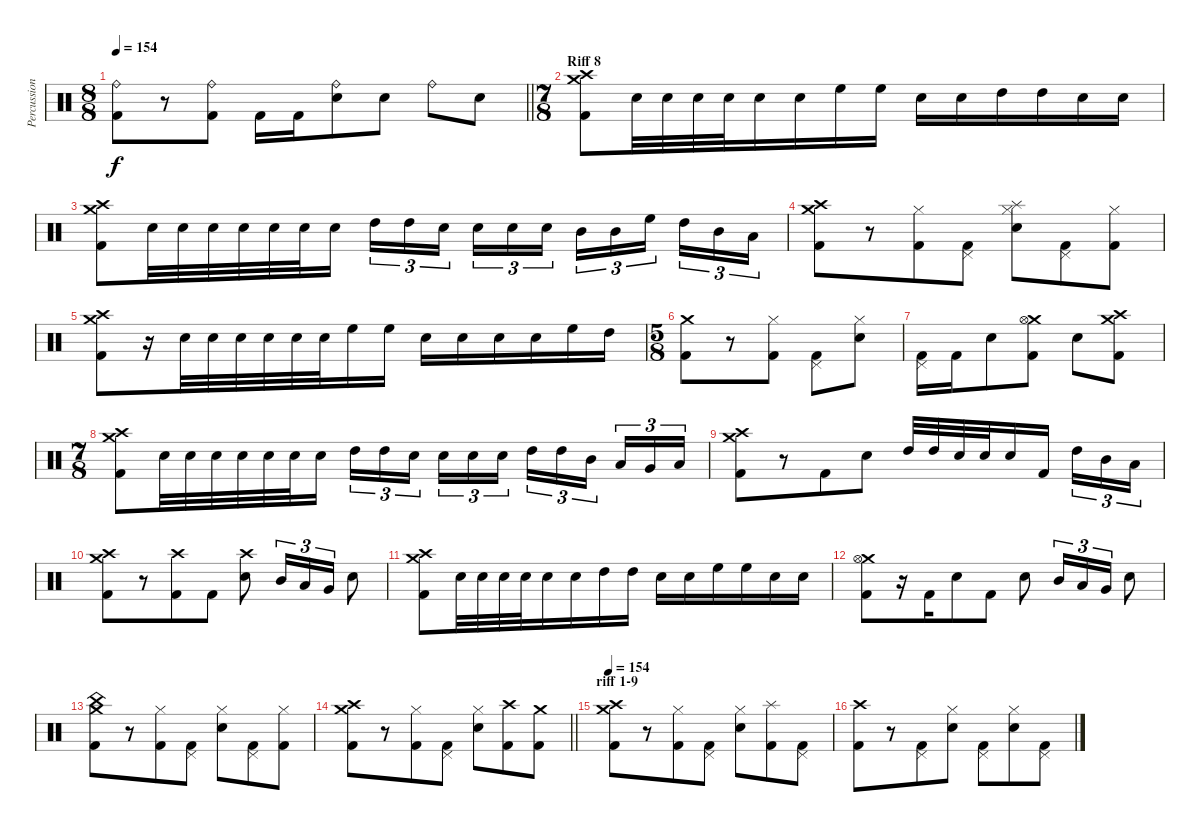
\track ("Percussions" "Percussion") {instrument percussion}
\staff {score}
\articulation defaults
\ts (8 8)
\tempo 154
\clef neutral
\barLineRight lightlight
\ks c
("Ride (bell)" "Kick (hit) 2").8{dy f} r.8 ("Ride (bell)" "Kick (hit) 2").8 "Kick (hit) 2".16 "Kick (hit) 2".16 ("Ride (bell)" "Electric Snare (hit)").8 "Electric Snare (hit)".8 "Ride (bell)".8 "Electric Snare (hit)".8 |
\ts (7 8)
\section ("" "Riff 8")
("Crash medium (hit)" "Crash high (hit)" "Kick (hit) 2").8 "Electric Snare (hit)".32 "Electric Snare (hit)".32 "Electric Snare (hit)".32 "Electric Snare (hit)".32 "Electric Snare (hit)".16 "Electric Snare (hit)".16 "High Floor Tom (hit)".16 "High Floor Tom (hit)".16 "Electric Snare (hit)".16 "Electric Snare (hit)".16 "High Tom (hit)".16 "High Tom (hit)".16 "Electric Snare (hit)".16 "Electric Snare (hit)".16 |
("Crash medium (hit)" "Crash high (hit)" "Kick (hit) 2").8 "Electric Snare (hit)".32 "Electric Snare (hit)".32 "Electric Snare (hit)".32 "Electric Snare (hit)".32 "Electric Snare (hit)".32 "Electric Snare (hit)".32 "Electric Snare (hit)".16 "High Tom (hit)".16{tu (3 2)} "High Tom (hit)".16{tu (3 2)} "Electric Snare (hit)".16{tu (3 2)} "Electric Snare (hit)".16{tu (3 2)} "Electric Snare (hit)".16{tu (3 2)} "Electric Snare (hit)".16{tu (3 2)} "Mid Tom (hit)".16{tu (3 2)} "Mid Tom (hit)".16{tu (3 2)} "High Floor Tom (hit)".16{tu (3 2)} "High Tom (hit)".16{tu (3 2)} "Mid Tom (hit)".16{tu (3 2)} "Low Tom (hit)".16{tu (3 2)} |
("Crash high (hit)" "Crash medium (hit)" "Kick (hit) 2").8 r.8 ("Hi-Hat (closed)" "Kick (hit) 2").8 ("Pedal Hi-Hat (hit)" "Kick (hit) 2").8 ("Splash (hit)" "Hi-Hat (closed)" "Electric Snare (hit)").8 ("Pedal Hi-Hat (hit)" "Kick (hit) 2").8 ("Hi-Hat (closed)" "Kick (hit) 2").8 |
("Crash medium (hit)" "Crash high (hit)" "Kick (hit) 2").8 r.16 "Electric Snare (hit)".32 "Electric Snare (hit)".32 "Electric Snare (hit)".32 "Electric Snare (hit)".32 "Electric Snare (hit)".32 "Electric Snare (hit)".32 "High Floor Tom (hit)".16 "High Floor Tom (hit)".16 "Electric Snare (hit)".16 "Electric Snare (hit)".16 "Electric Snare (hit)".16 "Electric Snare (hit)".16 "High Floor Tom (hit)".16 "High Tom (hit)".16 |
\ts (5 8)
("Crash medium (hit)" "Kick (hit) 2").8 r.8 ("Hi-Hat (closed)" "Kick (hit) 2").8 ("Pedal Hi-Hat (hit)" "Kick (hit) 2").8 ("Hi-Hat (closed)" "Electric Snare (hit)").8 |
("Pedal Hi-Hat (hit)" "Kick (hit) 2").16 "Kick (hit) 2".16 "Electric Snare (hit)".8 ("Crash medium (hit)" "Hi-Hat (open)" "Kick (hit) 2").8 "Electric Snare (hit)".8 ("Crash high (hit)" "Crash medium (hit)" "Kick (hit) 2").8 |
\ts (7 8)
("Crash medium (hit)" "Crash high (hit)" "Kick (hit) 2").8 "Electric Snare (hit)".32 "Electric Snare (hit)".32 "Electric Snare (hit)".32 "Electric Snare (hit)".32 "Electric Snare (hit)".32 "Electric Snare (hit)".32 "Electric Snare (hit)".16 "High Tom (hit)".16{tu (3 2)} "High Tom (hit)".16{tu (3 2)} "Electric Snare (hit)".16{tu (3 2)} "Electric Snare (hit)".16{tu (3 2)} "Electric Snare (hit)".16{tu (3 2)} "Electric Snare (hit)".16{tu (3 2)} "High Tom (hit)".16{tu (3 2)} "High Tom (hit)".16{tu (3 2)} "Mid Tom (hit)".16{tu (3 2)} "Low Tom (hit)".16{tu (3 2)} "Very Low Tom (hit)".16{tu (3 2)} "Low Floor Tom (hit)".16{tu (3 2)} |
("Crash medium (hit)" "Crash high (hit)" "Kick (hit) 2").8 r.8 "Kick (hit) 2".8 "Electric Snare (hit)".8 "High Tom (hit)".32 "High Tom (hit)".32 "Electric Snare (hit)".32 "Electric Snare (hit)".32 "Electric Snare (hit)".16 "Kick (hit) 2".16 "High Tom (hit)".16{tu (3 2)} "Mid Tom (hit)".16{tu (3 2)} "Low Tom (hit)".16{tu (3 2)} |
("Crash high (hit)" "Crash medium (hit)" "Kick (hit) 2").8 r.8 ("Crash high (hit)" "Kick (hit) 2").8 "Kick (hit) 2".8 ("Crash high (hit)" "Electric Snare (hit)").8 "Mid Tom (hit)".16{tu (3 2)} "Low Tom (hit)".16{tu (3 2)} "Very Low Tom (hit)".16{tu (3 2)} "Electric Snare (hit)".8 |
("Crash medium (hit)" "Crash high (hit)" "Kick (hit) 2").8 "Electric Snare (hit)".32 "Electric Snare (hit)".32 "Electric Snare (hit)".32 "Electric Snare (hit)".32 "Electric Snare (hit)".16 "Electric Snare (hit)".16 "High Tom (hit)".16 "High Tom (hit)".16 "Electric Snare (hit)".16 "Electric Snare (hit)".16 "High Floor Tom (hit)".16 "High Floor Tom (hit)".16 "Electric Snare (hit)".16 "Electric Snare (hit)".16 |
("Crash medium (hit)" "Hi-Hat (open)" "Kick (hit) 2").8 r.16 "Kick (hit) 2".16 "Electric Snare (hit)".8 "Kick (hit) 2".8 "Electric Snare (hit)".8 "Mid Tom (hit)".16{tu (3 2)} "Low Tom (hit)".16{tu (3 2)} "Very Low Tom (hit)".16{tu (3 2)} "Electric Snare (hit)".8 |
("China (hit)" "Crash medium (hit)" "Kick (hit) 2").8 r.8 ("Hi-Hat (closed)" "Kick (hit) 2").8 ("Pedal Hi-Hat (hit)" "Kick (hit) 2").8 ("Hi-Hat (closed)" "Electric Snare (hit)").8 ("Pedal Hi-Hat (hit)" "Kick (hit) 2").8 ("Hi-Hat (closed)" "Kick (hit) 2").8 |
\barLineRight lightlight
("Crash medium (hit)" "Crash high (hit)" "Kick (hit) 2").8 r.8 ("Hi-Hat (closed)" "Kick (hit) 2").8 ("Pedal Hi-Hat (hit)" "Kick (hit) 2").8 ("Hi-Hat (closed)" "Electric Snare (hit)").8 ("Crash high (hit)" "Kick (hit) 2").8 ("Crash medium (hit)" "Kick (hit) 2").8 |
\section ("" "riff 1-9")
\tempo 154
("Crash high (hit)" "Crash medium (hit)" "Kick (hit) 2").8 r.8 ("Hi-Hat (closed)" "Kick (hit) 2").8 ("Pedal Hi-Hat (hit)" "Kick (hit) 2").8 ("Hi-Hat (closed)" "Electric Snare (hit)").8 ("Splash (hit)" "Kick (hit) 2").8 ("Pedal Hi-Hat (hit)" "Kick (hit) 2").8 |
("Crash high (hit)" "Kick (hit) 2").8 r.8 ("Pedal Hi-Hat (hit)" "Kick (hit) 2").8 ("Hi-Hat (closed)" "Electric Snare (hit)").8 ("Pedal Hi-Hat (hit)" "Kick (hit) 2").8 ("Hi-Hat (closed)" "Electric Snare (hit)").8 ("Pedal Hi-Hat (hit)" "Kick (hit) 2").8
